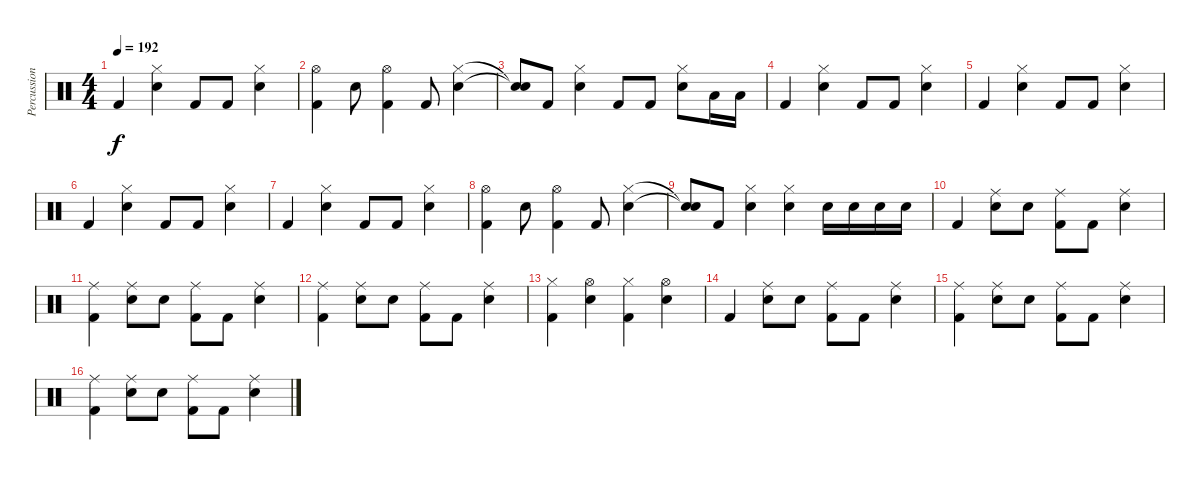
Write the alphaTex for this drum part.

\track ("Percussions" "Percussion") {instrument percussion}
\staff {score}
\articulation defaults
\ts (4 4)
\tempo 192
\clef neutral
\ks c "Kick (hit) 2".4{dy f}
("Electric Snare (hit)" "Hi-Hat (closed)").4 "Kick (hit) 2".8 "Kick (hit) 2".8 ("Electric Snare (hit)" "Hi-Hat (closed)").4 |
("Kick (hit) 2" "Hi-Hat (open)").4 "Electric Snare (hit)".8 ("Kick (hit) 2" "Hi-Hat (open)").4 "Kick (hit) 2".8 ("Electric Snare (hit)" "Hi-Hat (closed)").4 |
("Snare (hit)"{t} "Snare (hit)"{t}).8 "Kick (hit) 2".8 ("Electric Snare (hit)" "Hi-Hat (closed)").4 "Kick (hit) 2".8 "Kick (hit) 2".8 ("Electric Snare (hit)" "Hi-Hat (closed)").8 "Low Tom (hit)".16 "Low Tom (hit)".16 |
"Kick (hit) 2".4 ("Electric Snare (hit)" "Hi-Hat (closed)").4 "Kick (hit) 2".8 "Kick (hit) 2".8 ("Electric Snare (hit)" "Hi-Hat (closed)").4 |
"Kick (hit) 2".4 ("Electric Snare (hit)" "Hi-Hat (closed)").4 "Kick (hit) 2".8 "Kick (hit) 2".8 ("Electric Snare (hit)" "Hi-Hat (closed)").4 |
"Kick (hit) 2".4 ("Electric Snare (hit)" "Hi-Hat (closed)").4 "Kick (hit) 2".8 "Kick (hit) 2".8 ("Electric Snare (hit)" "Hi-Hat (closed)").4 |
"Kick (hit) 2".4 ("Electric Snare (hit)" "Hi-Hat (closed)").4 "Kick (hit) 2".8 "Kick (hit) 2".8 ("Electric Snare (hit)" "Hi-Hat (closed)").4 |
("Kick (hit) 2" "Hi-Hat (open)").4 "Electric Snare (hit)".8 ("Kick (hit) 2" "Hi-Hat (open)").4 "Kick (hit) 2".8 ("Electric Snare (hit)" "Hi-Hat (closed)").4 |
("Snare (hit)"{t} "Snare (hit)"{t}).8 "Kick (hit) 2".8 ("Electric Snare (hit)" "Hi-Hat (closed)").4 ("Electric Snare (hit)" "Hi-Hat (closed)").4 "Electric Snare (hit)".16 "Electric Snare (hit)".16 "Electric Snare (hit)".16 "Electric Snare (hit)".16 |
"Kick (hit) 2".4 ("Electric Snare (hit)" "Ride (middle)").8 "Electric Snare (hit)".8 ("Kick (hit) 2" "Ride (middle)").8 "Kick (hit) 2".8 ("Electric Snare (hit)" "Ride (middle)").4 |
("Kick (hit) 2" "Ride (middle)").4 ("Electric Snare (hit)" "Ride (middle)").8 "Electric Snare (hit)".8 ("Kick (hit) 2" "Ride (middle)").8 "Kick (hit) 2".8 ("Electric Snare (hit)" "Ride (middle)").4 |
("Kick (hit) 2" "Ride (middle)").4 ("Electric Snare (hit)" "Ride (middle)").8 "Electric Snare (hit)".8 ("Kick (hit) 2" "Ride (middle)").8 "Kick (hit) 2".8 ("Electric Snare (hit)" "Ride (middle)").4 |
("Kick (hit) 2" "Hi-Hat (closed)").4 ("Electric Snare (hit)" "Hi-Hat (open)").4 ("Kick (hit) 2" "Hi-Hat (closed)").4 ("Electric Snare (hit)" "Hi-Hat (open)").4 |
"Kick (hit) 2".4 ("Electric Snare (hit)" "Ride (middle)").8 "Electric Snare (hit)".8 ("Kick (hit) 2" "Ride (middle)").8 "Kick (hit) 2".8 ("Electric Snare (hit)" "Ride (middle)").4 |
("Kick (hit) 2" "Ride (middle)").4 ("Electric Snare (hit)" "Ride (middle)").8 "Electric Snare (hit)".8 ("Kick (hit) 2" "Ride (middle)").8 "Kick (hit) 2".8 ("Electric Snare (hit)" "Ride (middle)").4 |
("Kick (hit) 2" "Ride (middle)").4 ("Electric Snare (hit)" "Ride (middle)").8 "Electric Snare (hit)".8 ("Kick (hit) 2" "Ride (middle)").8 "Kick (hit) 2".8 ("Electric Snare (hit)" "Ride (middle)").4
